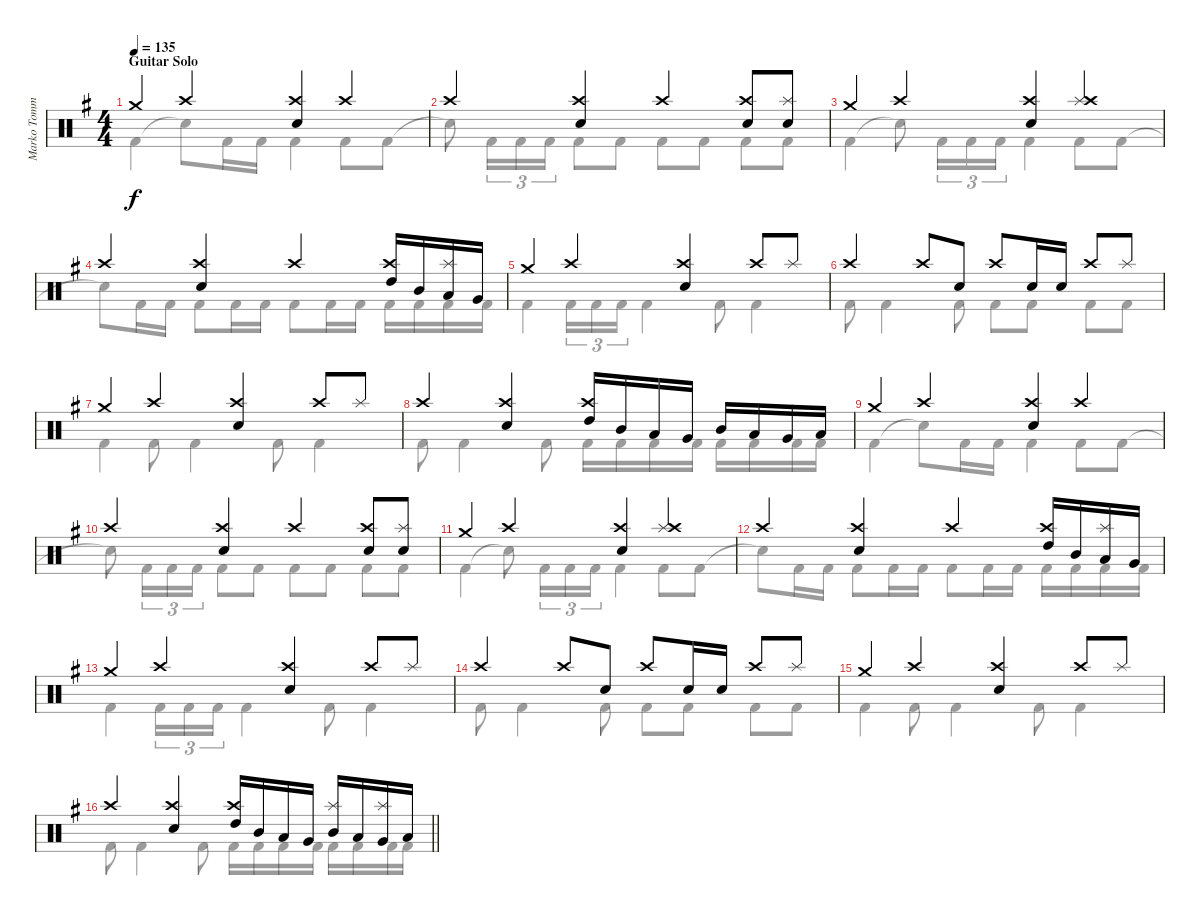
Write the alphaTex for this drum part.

\track ("Marko Tommila (drums)" "Marko Tomm") {instrument percussion}
\staff {score}
\articulation defaults
\voice
\ts (4 4)
\section ("" "Guitar Solo")
\tempo 135
\clef neutral
\ks eminor "Crash medium (hit)".4{dy f} "Crash high (hit)".4
("Electric Snare (hit)" "Crash high (hit)").4 "Crash high (hit)".4 |
"Crash high (hit)".4 ("Electric Snare (hit)" "Crash high (hit)").4 "Crash high (hit)".4 ("Electric Snare (hit)" "Crash high (hit)").8 ("Electric Snare (hit)" "Splash (hit)").8 |
"Crash medium (hit)".4 "Crash high (hit)".4 ("Electric Snare (hit)" "Crash high (hit)").4 ("Splash (hit)" "Crash high (hit)").4 |
"Crash high (hit)".4 ("Electric Snare (hit)" "Crash high (hit)").4 "Crash high (hit)".4 ("High Tom (hit)" "Crash high (hit)").16 "Mid Tom (hit)".16 ("Low Tom (hit)" "Splash (hit)").16 "Very Low Tom (hit)".16 |
"Crash medium (hit)".4 "Crash high (hit)".4 ("Electric Snare (hit)" "Crash high (hit)").4 "Crash high (hit)".8 "Splash (hit)".8 |
"Crash high (hit)".4 "Crash high (hit)".8 "Electric Snare (hit)".8 "Crash high (hit)".8 "Electric Snare (hit)".16 "Electric Snare (hit)".16 "Crash high (hit)".8 "Splash (hit)".8 |
"Crash medium (hit)".4 "Crash high (hit)".4 ("Electric Snare (hit)" "Crash high (hit)").4 "Crash high (hit)".8 "Splash (hit)".8 |
"Crash high (hit)".4 ("Electric Snare (hit)" "Crash high (hit)").4 ("High Tom (hit)" "Crash high (hit)").16 "Mid Tom (hit)".16 "Low Tom (hit)".16 "Very Low Tom (hit)".16 "Mid Tom (hit)".16 "Low Tom (hit)".16 "Very Low Tom (hit)".16 "Low Floor Tom (hit)".16 |
"Crash medium (hit)".4 "Crash high (hit)".4 ("Electric Snare (hit)" "Crash high (hit)").4 "Crash high (hit)".4 |
"Crash high (hit)".4 ("Electric Snare (hit)" "Crash high (hit)").4 "Crash high (hit)".4 ("Electric Snare (hit)" "Crash high (hit)").8 ("Electric Snare (hit)" "Splash (hit)").8 |
"Crash medium (hit)".4 "Crash high (hit)".4 ("Electric Snare (hit)" "Crash high (hit)").4 ("Splash (hit)" "Crash high (hit)").4 |
"Crash high (hit)".4 ("Electric Snare (hit)" "Crash high (hit)").4 "Crash high (hit)".4 ("High Tom (hit)" "Crash high (hit)").16 "Mid Tom (hit)".16 ("Low Tom (hit)" "Splash (hit)").16 "Very Low Tom (hit)".16 |
"Crash medium (hit)".4 "Crash high (hit)".4 ("Electric Snare (hit)" "Crash high (hit)").4 "Crash high (hit)".8 "Splash (hit)".8 |
"Crash high (hit)".4 "Crash high (hit)".8 "Electric Snare (hit)".8 "Crash high (hit)".8 "Electric Snare (hit)".16 "Electric Snare (hit)".16 "Crash high (hit)".8 "Splash (hit)".8 |
"Crash medium (hit)".4 "Crash high (hit)".4 ("Electric Snare (hit)" "Crash high (hit)").4 "Crash high (hit)".8 "Splash (hit)".8 |
\barLineRight lightlight "Crash high (hit)".4
("Electric Snare (hit)" "Crash high (hit)").4 ("High Tom (hit)" "Crash high (hit)").16 "Mid Tom (hit)".16 "Low Tom (hit)".16 "Very Low Tom (hit)".16 ("Mid Tom (hit)" "Splash (hit)").16 "Low Tom (hit)".16 ("Very Low Tom (hit)" "Splash (hit)").16 "Low Floor Tom (hit)".16
\voice
\clef neutral
\ottava regular
\simile none
\ks eminor "Kick (hit) 2".4{dy f} "Snare (hit)"{t}.8 "Kick (hit) 2".16 "Kick (hit) 2".16 "Kick (hit) 2".4 "Kick (hit) 2".8 "Kick (hit) 2".8
|
"Snare (hit)"{t}.8 "Kick (hit) 2".16{tu (3 2)} "Kick (hit) 2".16{tu (3 2)} "Kick (hit) 2".16{tu (3 2)} "Kick (hit) 2".8 "Kick (hit) 2".8 "Kick (hit) 2".8 "Kick (hit) 2".8 "Kick (hit) 2".8 "Kick (hit) 2".8 |
"Kick (hit) 2".4 "Snare (hit)"{t}.8 "Kick (hit) 2".16{tu (3 2)} "Kick (hit) 2".16{tu (3 2)} "Kick (hit) 2".16{tu (3 2)} "Kick (hit) 2".4 "Kick (hit) 2".8 "Kick (hit) 2".8 |
"Snare (hit)"{t}.8 "Kick (hit) 2".16 "Kick (hit) 2".16 "Kick (hit) 2".8 "Kick (hit) 2".16 "Kick (hit) 2".16 "Kick (hit) 2".8 "Kick (hit) 2".16 "Kick (hit) 2".16 "Kick (hit) 2".16 "Kick (hit) 2".16 "Kick (hit) 2".16 "Kick (hit) 2".16 |
"Kick (hit) 2".4 "Kick (hit) 2".16{tu (3 2)} "Kick (hit) 2".16{tu (3 2)} "Kick (hit) 2".16{tu (3 2)} "Kick (hit) 2".4 "Kick (hit) 2".8 "Kick (hit) 2".4 |
"Kick (hit) 2".8 "Kick (hit) 2".4 "Kick (hit) 2".8 "Kick (hit) 2".8 "Kick (hit) 2".8 "Kick (hit) 2".8 "Kick (hit) 2".8 |
"Kick (hit) 2".4 "Kick (hit) 2".8 "Kick (hit) 2".4 "Kick (hit) 2".8 "Kick (hit) 2".4 |
"Kick (hit) 2".8 "Kick (hit) 2".4 "Kick (hit) 2".8 "Kick (hit) 2".16 "Kick (hit) 2".16 "Kick (hit) 2".16 "Kick (hit) 2".16 "Kick (hit) 2".16 "Kick (hit) 2".16 "Kick (hit) 2".16 "Kick (hit) 2".16 |
"Kick (hit) 2".4 "Snare (hit)"{t}.8 "Kick (hit) 2".16 "Kick (hit) 2".16 "Kick (hit) 2".4 "Kick (hit) 2".8 "Kick (hit) 2".8 |
"Snare (hit)"{t}.8 "Kick (hit) 2".16{tu (3 2)} "Kick (hit) 2".16{tu (3 2)} "Kick (hit) 2".16{tu (3 2)} "Kick (hit) 2".8 "Kick (hit) 2".8 "Kick (hit) 2".8 "Kick (hit) 2".8 "Kick (hit) 2".8 "Kick (hit) 2".8 |
"Kick (hit) 2".4 "Snare (hit)"{t}.8 "Kick (hit) 2".16{tu (3 2)} "Kick (hit) 2".16{tu (3 2)} "Kick (hit) 2".16{tu (3 2)} "Kick (hit) 2".4 "Kick (hit) 2".8 "Kick (hit) 2".8 |
"Snare (hit)"{t}.8 "Kick (hit) 2".16 "Kick (hit) 2".16 "Kick (hit) 2".8 "Kick (hit) 2".16 "Kick (hit) 2".16 "Kick (hit) 2".8 "Kick (hit) 2".16 "Kick (hit) 2".16 "Kick (hit) 2".16 "Kick (hit) 2".16 "Kick (hit) 2".16 "Kick (hit) 2".16 |
"Kick (hit) 2".4 "Kick (hit) 2".16{tu (3 2)} "Kick (hit) 2".16{tu (3 2)} "Kick (hit) 2".16{tu (3 2)} "Kick (hit) 2".4 "Kick (hit) 2".8 "Kick (hit) 2".4 |
"Kick (hit) 2".8 "Kick (hit) 2".4 "Kick (hit) 2".8 "Kick (hit) 2".8 "Kick (hit) 2".8 "Kick (hit) 2".8 "Kick (hit) 2".8 |
"Kick (hit) 2".4 "Kick (hit) 2".8 "Kick (hit) 2".4 "Kick (hit) 2".8 "Kick (hit) 2".4 |
\barLineRight lightlight "Kick (hit) 2".8 "Kick (hit) 2".4 "Kick (hit) 2".8 "Kick (hit) 2".16 "Kick (hit) 2".16 "Kick (hit) 2".16 "Kick (hit) 2".16 "Kick (hit) 2".16 "Kick (hit) 2".16 "Kick (hit) 2".16 "Kick (hit) 2".16
